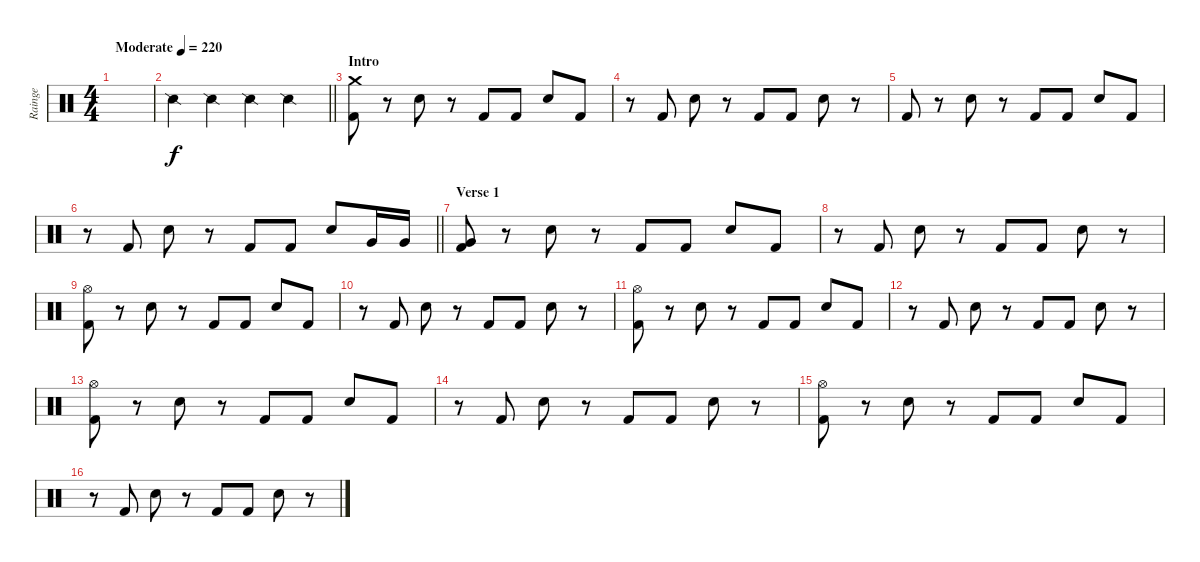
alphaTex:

\track ("Rainge" "Rainge") {instrument percussion}
\staff {score}
\articulation defaults
\ts (4 4)
\tempo (220 "Moderate")
\clef neutral
\ks c
|
\barLineRight lightlight "Snare (side stick) 2".4 "Snare (side stick) 2".4 "Snare (side stick) 2".4 "Snare (side stick) 2".4
|
\section ("" "Intro")
("Crash medium (hit)" "Kick (hit) 2").8 r.8 "Electric Snare (hit)".8 r.8 "Kick (hit) 2".8 "Kick (hit) 2".8 "Electric Snare (hit)".8 "Kick (hit) 2".8 |
r.8 "Kick (hit) 2".8 "Electric Snare (hit)".8 r.8 "Kick (hit) 2".8 "Kick (hit) 2".8 "Electric Snare (hit)".8 r.8 |
"Kick (hit) 2".8 r.8 "Electric Snare (hit)".8 r.8 "Kick (hit) 2".8 "Kick (hit) 2".8 "Electric Snare (hit)".8 "Kick (hit) 2".8 |
\barLineRight lightlight
r.8 "Kick (hit) 2".8 "Electric Snare (hit)".8 r.8 "Kick (hit) 2".8 "Kick (hit) 2".8 "Electric Snare (hit)".8 "Very Low Tom (hit)".16 "Very Low Tom (hit)".16 |
\section ("" "Verse 1")
("Very Low Tom (hit)" "Kick (hit) 2").8 r.8 "Electric Snare (hit)".8 r.8 "Kick (hit) 2".8 "Kick (hit) 2".8 "Electric Snare (hit)".8 "Kick (hit) 2".8 |
r.8 "Kick (hit) 2".8 "Electric Snare (hit)".8 r.8 "Kick (hit) 2".8 "Kick (hit) 2".8 "Electric Snare (hit)".8 r.8 |
("Hi-Hat (open)" "Kick (hit) 2").8 r.8 "Electric Snare (hit)".8 r.8 "Kick (hit) 2".8 "Kick (hit) 2".8 "Electric Snare (hit)".8 "Kick (hit) 2".8 |
r.8 "Kick (hit) 2".8 "Electric Snare (hit)".8 r.8 "Kick (hit) 2".8 "Kick (hit) 2".8 "Electric Snare (hit)".8 r.8 |
("Hi-Hat (open)" "Kick (hit) 2").8 r.8 "Electric Snare (hit)".8 r.8 "Kick (hit) 2".8 "Kick (hit) 2".8 "Electric Snare (hit)".8 "Kick (hit) 2".8 |
r.8 "Kick (hit) 2".8 "Electric Snare (hit)".8 r.8 "Kick (hit) 2".8 "Kick (hit) 2".8 "Electric Snare (hit)".8 r.8 |
("Hi-Hat (open)" "Kick (hit) 2").8 r.8 "Electric Snare (hit)".8 r.8 "Kick (hit) 2".8 "Kick (hit) 2".8 "Electric Snare (hit)".8 "Kick (hit) 2".8 |
r.8 "Kick (hit) 2".8 "Electric Snare (hit)".8 r.8 "Kick (hit) 2".8 "Kick (hit) 2".8 "Electric Snare (hit)".8 r.8 |
("Hi-Hat (open)" "Kick (hit) 2").8 r.8 "Electric Snare (hit)".8 r.8 "Kick (hit) 2".8 "Kick (hit) 2".8 "Electric Snare (hit)".8 "Kick (hit) 2".8 |
r.8 "Kick (hit) 2".8 "Electric Snare (hit)".8 r.8 "Kick (hit) 2".8 "Kick (hit) 2".8 "Electric Snare (hit)".8 r.8
